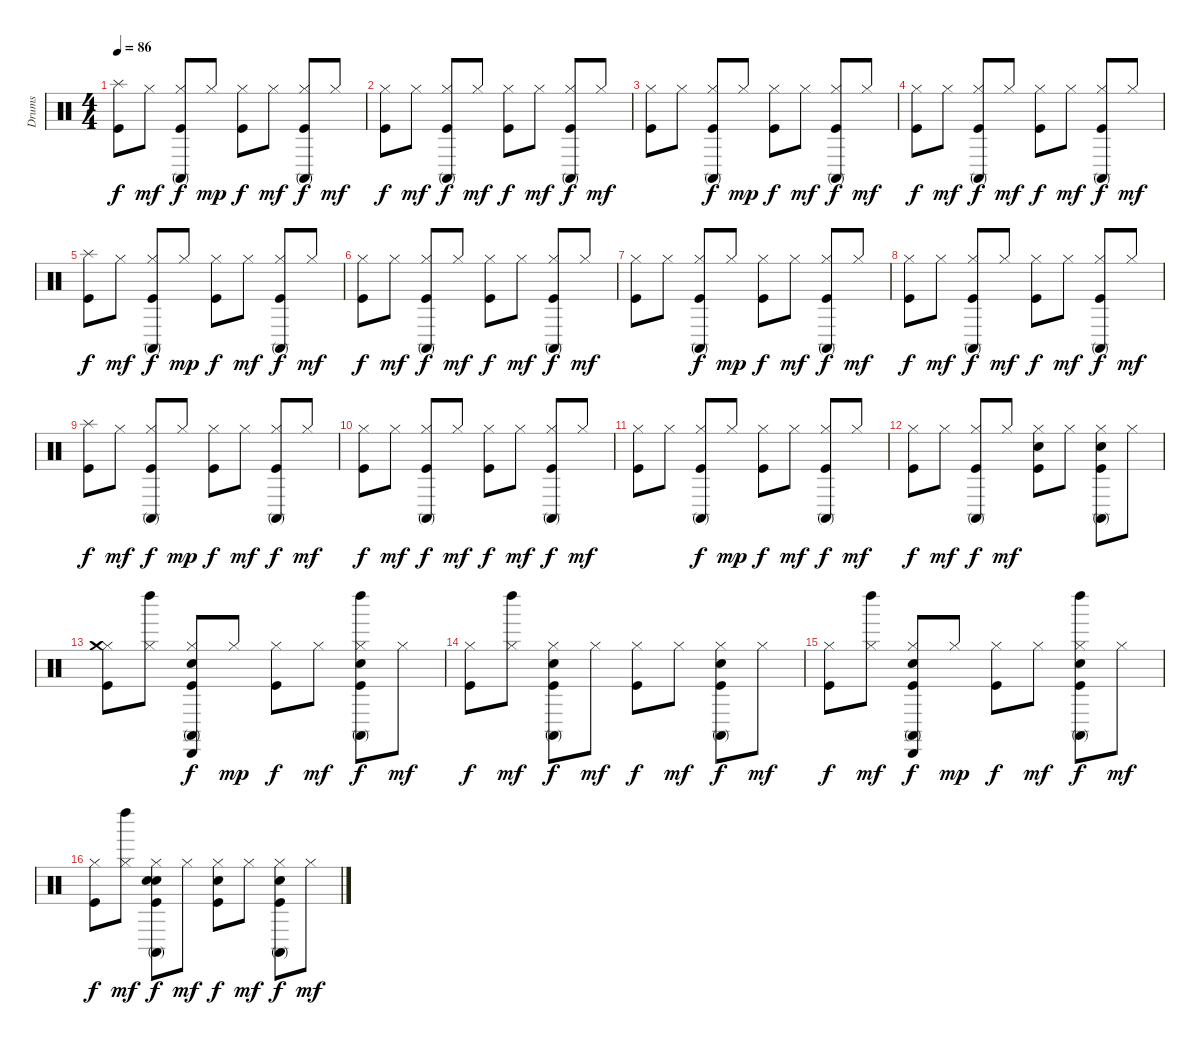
\track ("Drums" "Drums") {instrument percussion}
\staff {score}
\articulation defaults
\ts (4 4)
\tempo 86
\clef neutral
\ks c
("Splash (hit)" "Kick (hit)").8{dy f} "Hi-Hat (closed)".8{dy mf} ("Conga high (mute)" "Hi-Hat (closed)" "Kick (hit)").8{dy f} "Hi-Hat (closed)".8{dy mp} ("Hi-Hat (closed)" "Kick (hit)").8{dy f} "Hi-Hat (closed)".8{dy mf} ("Conga high (mute)" "Hi-Hat (closed)" "Kick (hit)").8{dy f} "Hi-Hat (closed)".8{dy mf} |
("Hi-Hat (closed)" "Kick (hit)").8{dy f} "Hi-Hat (closed)".8{dy mf} ("Conga high (mute)" "Hi-Hat (closed)" "Kick (hit)").8{dy f} "Hi-Hat (closed)".8{dy mf} ("Hi-Hat (closed)" "Kick (hit)").8{dy f} "Hi-Hat (closed)".8{dy mf} ("Conga high (mute)" "Hi-Hat (closed)" "Kick (hit)").8{dy f} "Hi-Hat (closed)".8{dy mf} |
("Hi-Hat (closed)" "Kick (hit)").8 "Hi-Hat (closed)".8 ("Conga high (mute)" "Hi-Hat (closed)" "Kick (hit)").8{dy f} "Hi-Hat (closed)".8{dy mp} ("Hi-Hat (closed)" "Kick (hit)").8{dy f} "Hi-Hat (closed)".8{dy mf} ("Conga high (mute)" "Hi-Hat (closed)" "Kick (hit)").8{dy f} "Hi-Hat (closed)".8{dy mf} |
("Hi-Hat (closed)" "Kick (hit)").8{dy f} "Hi-Hat (closed)".8{dy mf} ("Conga high (mute)" "Hi-Hat (closed)" "Kick (hit)").8{dy f} "Hi-Hat (closed)".8{dy mf} ("Hi-Hat (closed)" "Kick (hit)").8{dy f} "Hi-Hat (closed)".8{dy mf} ("Conga high (mute)" "Hi-Hat (closed)" "Kick (hit)").8{dy f} "Hi-Hat (closed)".8{dy mf} |
("Splash (hit)" "Kick (hit)").8{dy f} "Hi-Hat (closed)".8{dy mf} ("Conga high (mute)" "Hi-Hat (closed)" "Kick (hit)").8{dy f} "Hi-Hat (closed)".8{dy mp} ("Hi-Hat (closed)" "Kick (hit)").8{dy f} "Hi-Hat (closed)".8{dy mf} ("Conga high (mute)" "Hi-Hat (closed)" "Kick (hit)").8{dy f} "Hi-Hat (closed)".8{dy mf} |
("Hi-Hat (closed)" "Kick (hit)").8{dy f} "Hi-Hat (closed)".8{dy mf} ("Conga high (mute)" "Hi-Hat (closed)" "Kick (hit)").8{dy f} "Hi-Hat (closed)".8{dy mf} ("Hi-Hat (closed)" "Kick (hit)").8{dy f} "Hi-Hat (closed)".8{dy mf} ("Conga high (mute)" "Hi-Hat (closed)" "Kick (hit)").8{dy f} "Hi-Hat (closed)".8{dy mf} |
("Hi-Hat (closed)" "Kick (hit)").8 "Hi-Hat (closed)".8 ("Conga high (mute)" "Hi-Hat (closed)" "Kick (hit)").8{dy f} "Hi-Hat (closed)".8{dy mp} ("Hi-Hat (closed)" "Kick (hit)").8{dy f} "Hi-Hat (closed)".8{dy mf} ("Conga high (mute)" "Hi-Hat (closed)" "Kick (hit)").8{dy f} "Hi-Hat (closed)".8{dy mf} |
("Hi-Hat (closed)" "Kick (hit)").8{dy f} "Hi-Hat (closed)".8{dy mf} ("Conga high (mute)" "Hi-Hat (closed)" "Kick (hit)").8{dy f} "Hi-Hat (closed)".8{dy mf} ("Hi-Hat (closed)" "Kick (hit)").8{dy f} "Hi-Hat (closed)".8{dy mf} ("Conga high (mute)" "Hi-Hat (closed)" "Kick (hit)").8{dy f} "Hi-Hat (closed)".8{dy mf} |
("Splash (hit)" "Kick (hit)").8{dy f} "Hi-Hat (closed)".8{dy mf} ("Conga high (mute)" "Hi-Hat (closed)" "Kick (hit)").8{dy f} "Hi-Hat (closed)".8{dy mp} ("Hi-Hat (closed)" "Kick (hit)").8{dy f} "Hi-Hat (closed)".8{dy mf} ("Conga high (mute)" "Hi-Hat (closed)" "Kick (hit)").8{dy f} "Hi-Hat (closed)".8{dy mf} |
("Hi-Hat (closed)" "Kick (hit)").8{dy f} "Hi-Hat (closed)".8{dy mf} ("Conga high (mute)" "Hi-Hat (closed)" "Kick (hit)").8{dy f} "Hi-Hat (closed)".8{dy mf} ("Hi-Hat (closed)" "Kick (hit)").8{dy f} "Hi-Hat (closed)".8{dy mf} ("Conga high (mute)" "Hi-Hat (closed)" "Kick (hit)").8{dy f} "Hi-Hat (closed)".8{dy mf} |
("Hi-Hat (closed)" "Kick (hit)").8 "Hi-Hat (closed)".8 ("Conga high (mute)" "Hi-Hat (closed)" "Kick (hit)").8{dy f} "Hi-Hat (closed)".8{dy mp} ("Hi-Hat (closed)" "Kick (hit)").8{dy f} "Hi-Hat (closed)".8{dy mf} ("Conga high (mute)" "Hi-Hat (closed)" "Kick (hit)").8{dy f} "Hi-Hat (closed)".8{dy mf} |
("Hi-Hat (closed)" "Kick (hit)").8{dy f} "Hi-Hat (closed)".8{dy mf} ("Conga high (mute)" "Hi-Hat (closed)" "Kick (hit)").8{dy f} "Hi-Hat (closed)".8{dy mf} ("Hi-Hat (closed)" "Kick (hit)" "Snare (hit) 2").8 "Hi-Hat (closed)".8 ("Snare (hit) 2" "Conga high (mute)" "Hi-Hat (closed)" "Kick (hit)").8 "Hi-Hat (closed)".8 |
("Hi-Hat (closed)" "Crash medium (hit)" "Kick (hit)").8 ("Hi-Hat (closed)" "Left Maraca (hit)").8 ("Cabasa (hit)" "Snare (hit) 2" "Conga high (mute)" "Hi-Hat (closed)" "Kick (hit)").8{dy f} "Hi-Hat (closed)".8{dy mp} ("Hi-Hat (closed)" "Kick (hit)").8{dy f} "Hi-Hat (closed)".8{dy mf} ("Left Maraca (hit)" "Snare (hit) 2" "Conga high (mute)" "Hi-Hat (closed)" "Kick (hit)").8{dy f} "Hi-Hat (closed)".8{dy mf} |
("Hi-Hat (closed)" "Kick (hit)").8{dy f} ("Hi-Hat (closed)" "Left Maraca (hit)").8{dy mf} ("Snare (hit) 2" "Conga high (mute)" "Hi-Hat (closed)" "Kick (hit)").8{dy f} "Hi-Hat (closed)".8{dy mf} ("Hi-Hat (closed)" "Kick (hit)").8{dy f} "Hi-Hat (closed)".8{dy mf} ("Snare (hit) 2" "Conga high (mute)" "Hi-Hat (closed)" "Kick (hit)").8{dy f} "Hi-Hat (closed)".8{dy mf} |
("Hi-Hat (closed)" "Kick (hit)").8{dy f} ("Hi-Hat (closed)" "Left Maraca (hit)").8{dy mf} ("Cabasa (hit)" "Snare (hit) 2" "Conga high (mute)" "Hi-Hat (closed)" "Kick (hit)").8{dy f} "Hi-Hat (closed)".8{dy mp} ("Hi-Hat (closed)" "Kick (hit)").8{dy f} "Hi-Hat (closed)".8{dy mf} ("Left Maraca (hit)" "Snare (hit) 2" "Conga high (mute)" "Hi-Hat (closed)" "Kick (hit)").8{dy f} "Hi-Hat (closed)".8{dy mf} |
("Hi-Hat (closed)" "Kick (hit)").8{dy f} ("Hi-Hat (closed)" "Left Maraca (hit)").8{dy mf} ("Snare (hit) 2" "Conga high (mute)" "Hi-Hat (closed)" "Kick (hit)" "Snare (hit) 2").8{dy f} "Hi-Hat (closed)".8{dy mf} ("Hi-Hat (closed)" "Kick (hit)" "Snare (hit) 2").8{dy f} "Hi-Hat (closed)".8{dy mf} ("Snare (hit) 2" "Conga high (mute)" "Hi-Hat (closed)" "Kick (hit)").8{dy f} "Hi-Hat (closed)".8{dy mf}
